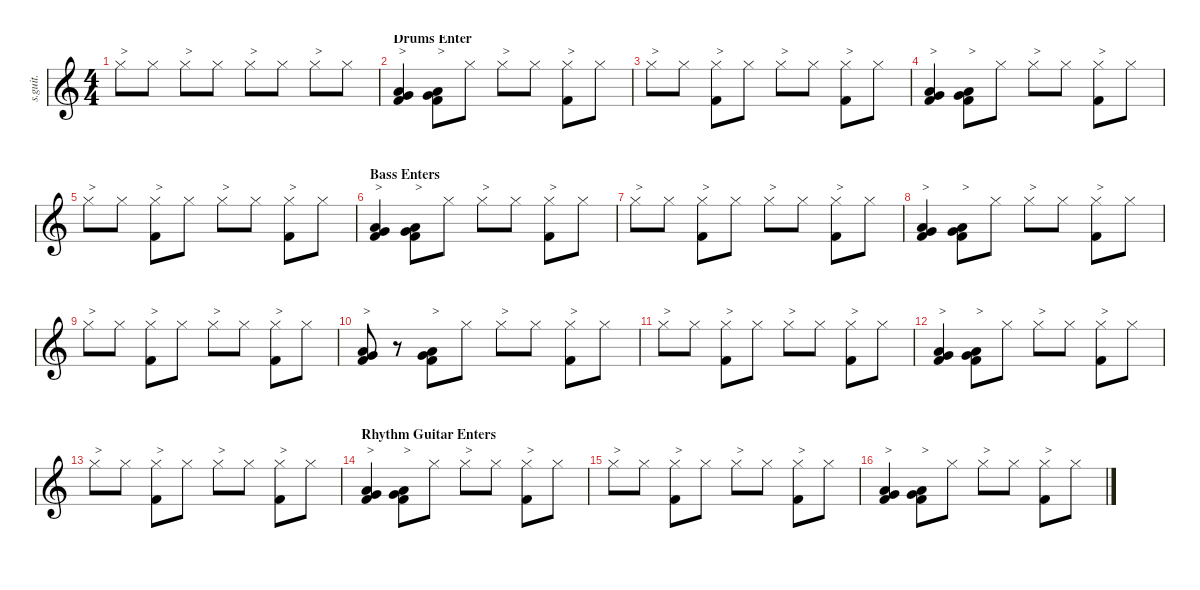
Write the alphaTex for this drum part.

\defaultSystemsLayout 4
\hideDynamics
\bracketExtendMode nobrackets
\track ("Chris Slade" "s.guit.") {instrument percussion}
\staff {score}
\articulation defaults
\ts (4 4)
\tempo (134 hide)
\clef g2
\ks c "Hi-Hat (closed)".8{txt ">" lyrics (0 "") lyrics (1 "") lyrics (2 "") lyrics (3 "") lyrics (4 "") dy ff} "Hi-Hat (closed)".8{lyrics (0 "") lyrics (1 "") lyrics (2 "") lyrics (3 "") lyrics (4 "") dy mf} "Hi-Hat (closed)".8{txt ">" lyrics (0 "") lyrics (1 "") lyrics (2 "") lyrics (3 "") lyrics (4 "") dy ff} "Hi-Hat (closed)".8{lyrics (0 "") lyrics (1 "") lyrics (2 "") lyrics (3 "") lyrics (4 "") dy mf} "Hi-Hat (closed)".8{txt ">" lyrics (0 "") lyrics (1 "") lyrics (2 "") lyrics (3 "") lyrics (4 "") dy ff} "Hi-Hat (closed)".8{lyrics (0 "") lyrics (1 "") lyrics (2 "") lyrics (3 "") lyrics (4 "") dy mf} "Hi-Hat (closed)".8{txt ">" lyrics (0 "") lyrics (1 "") lyrics (2 "") lyrics (3 "") lyrics (4 "") dy ff} "Hi-Hat (closed)".8{lyrics (0 "") lyrics (1 "") lyrics (2 "") lyrics (3 "") lyrics (4 "") dy mf}
|
\section ("" "Drums Enter")
("Very Low Tom (hit)" "Low Floor Tom (hit)" "Kick (hit) 2").4{txt ">" lyrics (0 "") lyrics (1 "") lyrics (2 "") lyrics (3 "") lyrics (4 "") dy ff} ("Very Low Tom (hit)" "Low Floor Tom (hit)" "Kick (hit) 2").8{txt ">" lyrics (0 "") lyrics (1 "") lyrics (2 "") lyrics (3 "") lyrics (4 "")} "Hi-Hat (closed)".8{lyrics (0 "") lyrics (1 "") lyrics (2 "") lyrics (3 "") lyrics (4 "") dy mf} "Hi-Hat (closed)".8{txt ">" lyrics (0 "") lyrics (1 "") lyrics (2 "") lyrics (3 "") lyrics (4 "") dy ff} "Hi-Hat (closed)".8{lyrics (0 "") lyrics (1 "") lyrics (2 "") lyrics (3 "") lyrics (4 "") dy mf} ("Hi-Hat (closed)" "Kick (hit) 2").8{txt ">" lyrics (0 "") lyrics (1 "") lyrics (2 "") lyrics (3 "") lyrics (4 "") dy f} "Hi-Hat (closed)".8{lyrics (0 "") lyrics (1 "") lyrics (2 "") lyrics (3 "") lyrics (4 "") dy mf} |
"Hi-Hat (closed)".8{txt ">" lyrics (0 "") lyrics (1 "") lyrics (2 "") lyrics (3 "") lyrics (4 "") dy ff} "Hi-Hat (closed)".8{lyrics (0 "") lyrics (1 "") lyrics (2 "") lyrics (3 "") lyrics (4 "") dy mf} ("Hi-Hat (closed)" "Kick (hit) 2").8{txt ">" lyrics (0 "") lyrics (1 "") lyrics (2 "") lyrics (3 "") lyrics (4 "") dy f} "Hi-Hat (closed)".8{lyrics (0 "") lyrics (1 "") lyrics (2 "") lyrics (3 "") lyrics (4 "") dy mf} "Hi-Hat (closed)".8{txt ">" lyrics (0 "") lyrics (1 "") lyrics (2 "") lyrics (3 "") lyrics (4 "") dy ff} "Hi-Hat (closed)".8{lyrics (0 "") lyrics (1 "") lyrics (2 "") lyrics (3 "") lyrics (4 "") dy mf} ("Hi-Hat (closed)" "Kick (hit) 2").8{txt ">" lyrics (0 "") lyrics (1 "") lyrics (2 "") lyrics (3 "") lyrics (4 "") dy f} "Hi-Hat (closed)".8{lyrics (0 "") lyrics (1 "") lyrics (2 "") lyrics (3 "") lyrics (4 "") dy mf} |
("Very Low Tom (hit)" "Low Floor Tom (hit)" "Kick (hit) 2").4{txt ">" lyrics (0 "") lyrics (1 "") lyrics (2 "") lyrics (3 "") lyrics (4 "") dy ff} ("Very Low Tom (hit)" "Low Floor Tom (hit)" "Kick (hit) 2").8{txt ">" lyrics (0 "") lyrics (1 "") lyrics (2 "") lyrics (3 "") lyrics (4 "")} "Hi-Hat (closed)".8{lyrics (0 "") lyrics (1 "") lyrics (2 "") lyrics (3 "") lyrics (4 "") dy mf} "Hi-Hat (closed)".8{txt ">" lyrics (0 "") lyrics (1 "") lyrics (2 "") lyrics (3 "") lyrics (4 "") dy ff} "Hi-Hat (closed)".8{lyrics (0 "") lyrics (1 "") lyrics (2 "") lyrics (3 "") lyrics (4 "") dy mf} ("Hi-Hat (closed)" "Kick (hit) 2").8{txt ">" lyrics (0 "") lyrics (1 "") lyrics (2 "") lyrics (3 "") lyrics (4 "") dy f} "Hi-Hat (closed)".8{lyrics (0 "") lyrics (1 "") lyrics (2 "") lyrics (3 "") lyrics (4 "") dy mf} |
"Hi-Hat (closed)".8{txt ">" lyrics (0 "") lyrics (1 "") lyrics (2 "") lyrics (3 "") lyrics (4 "") dy ff} "Hi-Hat (closed)".8{lyrics (0 "") lyrics (1 "") lyrics (2 "") lyrics (3 "") lyrics (4 "") dy mf} ("Hi-Hat (closed)" "Kick (hit) 2").8{txt ">" lyrics (0 "") lyrics (1 "") lyrics (2 "") lyrics (3 "") lyrics (4 "") dy f} "Hi-Hat (closed)".8{lyrics (0 "") lyrics (1 "") lyrics (2 "") lyrics (3 "") lyrics (4 "") dy mf} "Hi-Hat (closed)".8{txt ">" lyrics (0 "") lyrics (1 "") lyrics (2 "") lyrics (3 "") lyrics (4 "") dy ff} "Hi-Hat (closed)".8{lyrics (0 "") lyrics (1 "") lyrics (2 "") lyrics (3 "") lyrics (4 "") dy mf} ("Hi-Hat (closed)" "Kick (hit) 2").8{txt ">" lyrics (0 "") lyrics (1 "") lyrics (2 "") lyrics (3 "") lyrics (4 "") dy f} "Hi-Hat (closed)".8{lyrics (0 "") lyrics (1 "") lyrics (2 "") lyrics (3 "") lyrics (4 "") dy mf} |
\section ("" "Bass Enters")
("Very Low Tom (hit)" "Low Floor Tom (hit)" "Kick (hit) 2").4{txt ">" lyrics (0 "") lyrics (1 "") lyrics (2 "") lyrics (3 "") lyrics (4 "") dy ff} ("Very Low Tom (hit)" "Low Floor Tom (hit)" "Kick (hit) 2").8{txt ">" lyrics (0 "") lyrics (1 "") lyrics (2 "") lyrics (3 "") lyrics (4 "")} "Hi-Hat (closed)".8{lyrics (0 "") lyrics (1 "") lyrics (2 "") lyrics (3 "") lyrics (4 "") dy mf} "Hi-Hat (closed)".8{txt ">" lyrics (0 "") lyrics (1 "") lyrics (2 "") lyrics (3 "") lyrics (4 "") dy ff} "Hi-Hat (closed)".8{lyrics (0 "") lyrics (1 "") lyrics (2 "") lyrics (3 "") lyrics (4 "") dy mf} ("Hi-Hat (closed)" "Kick (hit) 2").8{txt ">" lyrics (0 "") lyrics (1 "") lyrics (2 "") lyrics (3 "") lyrics (4 "") dy f} "Hi-Hat (closed)".8{lyrics (0 "") lyrics (1 "") lyrics (2 "") lyrics (3 "") lyrics (4 "") dy mf} |
"Hi-Hat (closed)".8{txt ">" lyrics (0 "") lyrics (1 "") lyrics (2 "") lyrics (3 "") lyrics (4 "") dy ff} "Hi-Hat (closed)".8{lyrics (0 "") lyrics (1 "") lyrics (2 "") lyrics (3 "") lyrics (4 "") dy mf} ("Hi-Hat (closed)" "Kick (hit) 2").8{txt ">" lyrics (0 "") lyrics (1 "") lyrics (2 "") lyrics (3 "") lyrics (4 "") dy f} "Hi-Hat (closed)".8{lyrics (0 "") lyrics (1 "") lyrics (2 "") lyrics (3 "") lyrics (4 "") dy mf} "Hi-Hat (closed)".8{txt ">" lyrics (0 "") lyrics (1 "") lyrics (2 "") lyrics (3 "") lyrics (4 "") dy ff} "Hi-Hat (closed)".8{lyrics (0 "") lyrics (1 "") lyrics (2 "") lyrics (3 "") lyrics (4 "") dy mf} ("Hi-Hat (closed)" "Kick (hit) 2").8{txt ">" lyrics (0 "") lyrics (1 "") lyrics (2 "") lyrics (3 "") lyrics (4 "") dy f} "Hi-Hat (closed)".8{lyrics (0 "") lyrics (1 "") lyrics (2 "") lyrics (3 "") lyrics (4 "") dy mf} |
("Very Low Tom (hit)" "Low Floor Tom (hit)" "Kick (hit) 2").4{txt ">" lyrics (0 "") lyrics (1 "") lyrics (2 "") lyrics (3 "") lyrics (4 "") dy ff} ("Very Low Tom (hit)" "Low Floor Tom (hit)" "Kick (hit) 2").8{txt ">" lyrics (0 "") lyrics (1 "") lyrics (2 "") lyrics (3 "") lyrics (4 "")} "Hi-Hat (closed)".8{lyrics (0 "") lyrics (1 "") lyrics (2 "") lyrics (3 "") lyrics (4 "") dy mf} "Hi-Hat (closed)".8{txt ">" lyrics (0 "") lyrics (1 "") lyrics (2 "") lyrics (3 "") lyrics (4 "") dy ff} "Hi-Hat (closed)".8{lyrics (0 "") lyrics (1 "") lyrics (2 "") lyrics (3 "") lyrics (4 "") dy mf} ("Hi-Hat (closed)" "Kick (hit) 2").8{txt ">" lyrics (0 "") lyrics (1 "") lyrics (2 "") lyrics (3 "") lyrics (4 "") dy f} "Hi-Hat (closed)".8{lyrics (0 "") lyrics (1 "") lyrics (2 "") lyrics (3 "") lyrics (4 "") dy mf} |
"Hi-Hat (closed)".8{txt ">" lyrics (0 "") lyrics (1 "") lyrics (2 "") lyrics (3 "") lyrics (4 "") dy ff} "Hi-Hat (closed)".8{lyrics (0 "") lyrics (1 "") lyrics (2 "") lyrics (3 "") lyrics (4 "") dy mf} ("Hi-Hat (closed)" "Kick (hit) 2").8{txt ">" lyrics (0 "") lyrics (1 "") lyrics (2 "") lyrics (3 "") lyrics (4 "") dy f} "Hi-Hat (closed)".8{lyrics (0 "") lyrics (1 "") lyrics (2 "") lyrics (3 "") lyrics (4 "") dy mf} "Hi-Hat (closed)".8{txt ">" lyrics (0 "") lyrics (1 "") lyrics (2 "") lyrics (3 "") lyrics (4 "") dy ff} "Hi-Hat (closed)".8{lyrics (0 "") lyrics (1 "") lyrics (2 "") lyrics (3 "") lyrics (4 "") dy mf} ("Hi-Hat (closed)" "Kick (hit) 2").8{txt ">" lyrics (0 "") lyrics (1 "") lyrics (2 "") lyrics (3 "") lyrics (4 "") dy f} "Hi-Hat (closed)".8{lyrics (0 "") lyrics (1 "") lyrics (2 "") lyrics (3 "") lyrics (4 "") dy mf} |
("Very Low Tom (hit)" "Kick (hit) 2" "Low Floor Tom (hit)").8{txt ">" lyrics (0 "") lyrics (1 "") lyrics (2 "") lyrics (3 "") lyrics (4 "") dy ff} r.8 ("Kick (hit) 2" "Low Floor Tom (hit)" "Very Low Tom (hit)").8{txt ">" lyrics (0 "") lyrics (1 "") lyrics (2 "") lyrics (3 "") lyrics (4 "") dy f} "Hi-Hat (closed)".8{lyrics (0 "") lyrics (1 "") lyrics (2 "") lyrics (3 "") lyrics (4 "") dy mf} "Hi-Hat (closed)".8{txt ">" lyrics (0 "") lyrics (1 "") lyrics (2 "") lyrics (3 "") lyrics (4 "") dy ff} "Hi-Hat (closed)".8{lyrics (0 "") lyrics (1 "") lyrics (2 "") lyrics (3 "") lyrics (4 "") dy mf} ("Hi-Hat (closed)" "Kick (hit) 2").8{txt ">" lyrics (0 "") lyrics (1 "") lyrics (2 "") lyrics (3 "") lyrics (4 "") dy f} "Hi-Hat (closed)".8{lyrics (0 "") lyrics (1 "") lyrics (2 "") lyrics (3 "") lyrics (4 "") dy mf} |
"Hi-Hat (closed)".8{txt ">" lyrics (0 "") lyrics (1 "") lyrics (2 "") lyrics (3 "") lyrics (4 "") dy ff} "Hi-Hat (closed)".8{lyrics (0 "") lyrics (1 "") lyrics (2 "") lyrics (3 "") lyrics (4 "") dy mf} ("Hi-Hat (closed)" "Kick (hit) 2").8{txt ">" lyrics (0 "") lyrics (1 "") lyrics (2 "") lyrics (3 "") lyrics (4 "") dy f} "Hi-Hat (closed)".8{lyrics (0 "") lyrics (1 "") lyrics (2 "") lyrics (3 "") lyrics (4 "") dy mf} "Hi-Hat (closed)".8{txt ">" lyrics (0 "") lyrics (1 "") lyrics (2 "") lyrics (3 "") lyrics (4 "") dy ff} "Hi-Hat (closed)".8{lyrics (0 "") lyrics (1 "") lyrics (2 "") lyrics (3 "") lyrics (4 "") dy mf} ("Hi-Hat (closed)" "Kick (hit) 2").8{txt ">" lyrics (0 "") lyrics (1 "") lyrics (2 "") lyrics (3 "") lyrics (4 "") dy f} "Hi-Hat (closed)".8{lyrics (0 "") lyrics (1 "") lyrics (2 "") lyrics (3 "") lyrics (4 "") dy mf} |
("Kick (hit) 2" "Low Floor Tom (hit)" "Very Low Tom (hit)").4{txt ">" lyrics (0 "") lyrics (1 "") lyrics (2 "") lyrics (3 "") lyrics (4 "") dy ff} ("Kick (hit) 2" "Low Floor Tom (hit)" "Very Low Tom (hit)").8{txt ">" lyrics (0 "") lyrics (1 "") lyrics (2 "") lyrics (3 "") lyrics (4 "") dy f} "Hi-Hat (closed)".8{lyrics (0 "") lyrics (1 "") lyrics (2 "") lyrics (3 "") lyrics (4 "") dy mf} "Hi-Hat (closed)".8{txt ">" lyrics (0 "") lyrics (1 "") lyrics (2 "") lyrics (3 "") lyrics (4 "") dy ff} "Hi-Hat (closed)".8{lyrics (0 "") lyrics (1 "") lyrics (2 "") lyrics (3 "") lyrics (4 "") dy mf} ("Hi-Hat (closed)" "Kick (hit) 2").8{txt ">" lyrics (0 "") lyrics (1 "") lyrics (2 "") lyrics (3 "") lyrics (4 "") dy f} "Hi-Hat (closed)".8{lyrics (0 "") lyrics (1 "") lyrics (2 "") lyrics (3 "") lyrics (4 "") dy mf} |
"Hi-Hat (closed)".8{txt ">" lyrics (0 "") lyrics (1 "") lyrics (2 "") lyrics (3 "") lyrics (4 "") dy ff} "Hi-Hat (closed)".8{lyrics (0 "") lyrics (1 "") lyrics (2 "") lyrics (3 "") lyrics (4 "") dy mf} ("Hi-Hat (closed)" "Kick (hit) 2").8{txt ">" lyrics (0 "") lyrics (1 "") lyrics (2 "") lyrics (3 "") lyrics (4 "") dy f} "Hi-Hat (closed)".8{lyrics (0 "") lyrics (1 "") lyrics (2 "") lyrics (3 "") lyrics (4 "") dy mf} "Hi-Hat (closed)".8{txt ">" lyrics (0 "") lyrics (1 "") lyrics (2 "") lyrics (3 "") lyrics (4 "") dy ff} "Hi-Hat (closed)".8{lyrics (0 "") lyrics (1 "") lyrics (2 "") lyrics (3 "") lyrics (4 "") dy mf} ("Hi-Hat (closed)" "Kick (hit) 2").8{txt ">" lyrics (0 "") lyrics (1 "") lyrics (2 "") lyrics (3 "") lyrics (4 "") dy f} "Hi-Hat (closed)".8{lyrics (0 "") lyrics (1 "") lyrics (2 "") lyrics (3 "") lyrics (4 "") dy mf} |
\section ("" "Rhythm Guitar Enters")
("Very Low Tom (hit)" "Low Floor Tom (hit)" "Kick (hit) 2").4{txt ">" lyrics (0 "") lyrics (1 "") lyrics (2 "") lyrics (3 "") lyrics (4 "") dy ff} ("Very Low Tom (hit)" "Low Floor Tom (hit)" "Kick (hit) 2").8{txt ">" lyrics (0 "") lyrics (1 "") lyrics (2 "") lyrics (3 "") lyrics (4 "")} "Hi-Hat (closed)".8{lyrics (0 "") lyrics (1 "") lyrics (2 "") lyrics (3 "") lyrics (4 "") dy mf} "Hi-Hat (closed)".8{txt ">" lyrics (0 "") lyrics (1 "") lyrics (2 "") lyrics (3 "") lyrics (4 "") dy ff} "Hi-Hat (closed)".8{lyrics (0 "") lyrics (1 "") lyrics (2 "") lyrics (3 "") lyrics (4 "") dy mf} ("Hi-Hat (closed)" "Kick (hit) 2").8{txt ">" lyrics (0 "") lyrics (1 "") lyrics (2 "") lyrics (3 "") lyrics (4 "") dy f} "Hi-Hat (closed)".8{lyrics (0 "") lyrics (1 "") lyrics (2 "") lyrics (3 "") lyrics (4 "") dy mf} |
"Hi-Hat (closed)".8{txt ">" lyrics (0 "") lyrics (1 "") lyrics (2 "") lyrics (3 "") lyrics (4 "") dy ff} "Hi-Hat (closed)".8{lyrics (0 "") lyrics (1 "") lyrics (2 "") lyrics (3 "") lyrics (4 "") dy mf} ("Hi-Hat (closed)" "Kick (hit) 2").8{txt ">" lyrics (0 "") lyrics (1 "") lyrics (2 "") lyrics (3 "") lyrics (4 "") dy f} "Hi-Hat (closed)".8{lyrics (0 "") lyrics (1 "") lyrics (2 "") lyrics (3 "") lyrics (4 "") dy mf} "Hi-Hat (closed)".8{txt ">" lyrics (0 "") lyrics (1 "") lyrics (2 "") lyrics (3 "") lyrics (4 "") dy ff} "Hi-Hat (closed)".8{lyrics (0 "") lyrics (1 "") lyrics (2 "") lyrics (3 "") lyrics (4 "") dy mf} ("Hi-Hat (closed)" "Kick (hit) 2").8{txt ">" lyrics (0 "") lyrics (1 "") lyrics (2 "") lyrics (3 "") lyrics (4 "") dy f} "Hi-Hat (closed)".8{lyrics (0 "") lyrics (1 "") lyrics (2 "") lyrics (3 "") lyrics (4 "") dy mf} |
("Very Low Tom (hit)" "Low Floor Tom (hit)" "Kick (hit) 2").4{txt ">" lyrics (0 "") lyrics (1 "") lyrics (2 "") lyrics (3 "") lyrics (4 "") dy ff} ("Very Low Tom (hit)" "Low Floor Tom (hit)" "Kick (hit) 2").8{txt ">" lyrics (0 "") lyrics (1 "") lyrics (2 "") lyrics (3 "") lyrics (4 "")} "Hi-Hat (closed)".8{lyrics (0 "") lyrics (1 "") lyrics (2 "") lyrics (3 "") lyrics (4 "") dy mf} "Hi-Hat (closed)".8{txt ">" lyrics (0 "") lyrics (1 "") lyrics (2 "") lyrics (3 "") lyrics (4 "") dy ff} "Hi-Hat (closed)".8{lyrics (0 "") lyrics (1 "") lyrics (2 "") lyrics (3 "") lyrics (4 "") dy mf} ("Hi-Hat (closed)" "Kick (hit) 2").8{txt ">" lyrics (0 "") lyrics (1 "") lyrics (2 "") lyrics (3 "") lyrics (4 "") dy f} "Hi-Hat (closed)".8{lyrics (0 "") lyrics (1 "") lyrics (2 "") lyrics (3 "") lyrics (4 "") dy mf}
